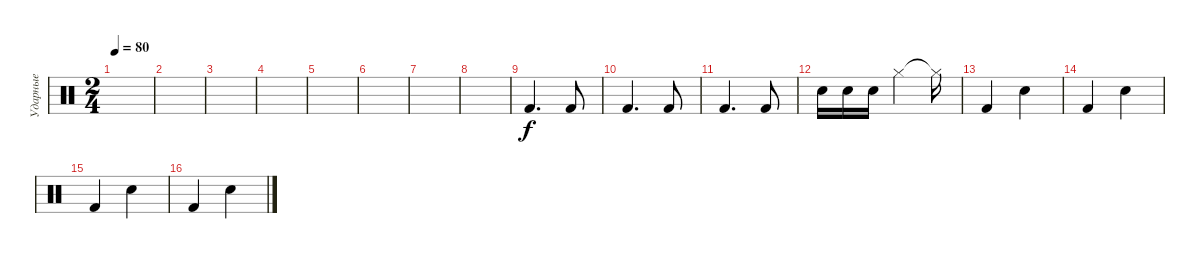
\track ("Ударные" "Ударные") {instrument percussion}
\staff {score}
\articulation defaults
\ts (2 4)
\tempo 80
\clef neutral
\ks c
|
|
|
|
|
|
|
|
"Kick (hit) 2".4{d} "Kick (hit) 2".8 |
"Kick (hit) 2".4{d} "Kick (hit) 2".8 |
"Kick (hit) 2".4{d} "Kick (hit) 2".8 |
"Snare (hit) 2".16 "Snare (hit) 2".16 "Snare (hit) 2".16 "Hi-Hat (closed)".4 "Hi-Hat (closed)"{t}.16 |
"Kick (hit) 2".4 "Snare (hit) 2".4 |
"Kick (hit) 2".4 "Snare (hit) 2".4 |
"Kick (hit) 2".4 "Snare (hit) 2".4 |
"Kick (hit) 2".4 "Snare (hit) 2".4
